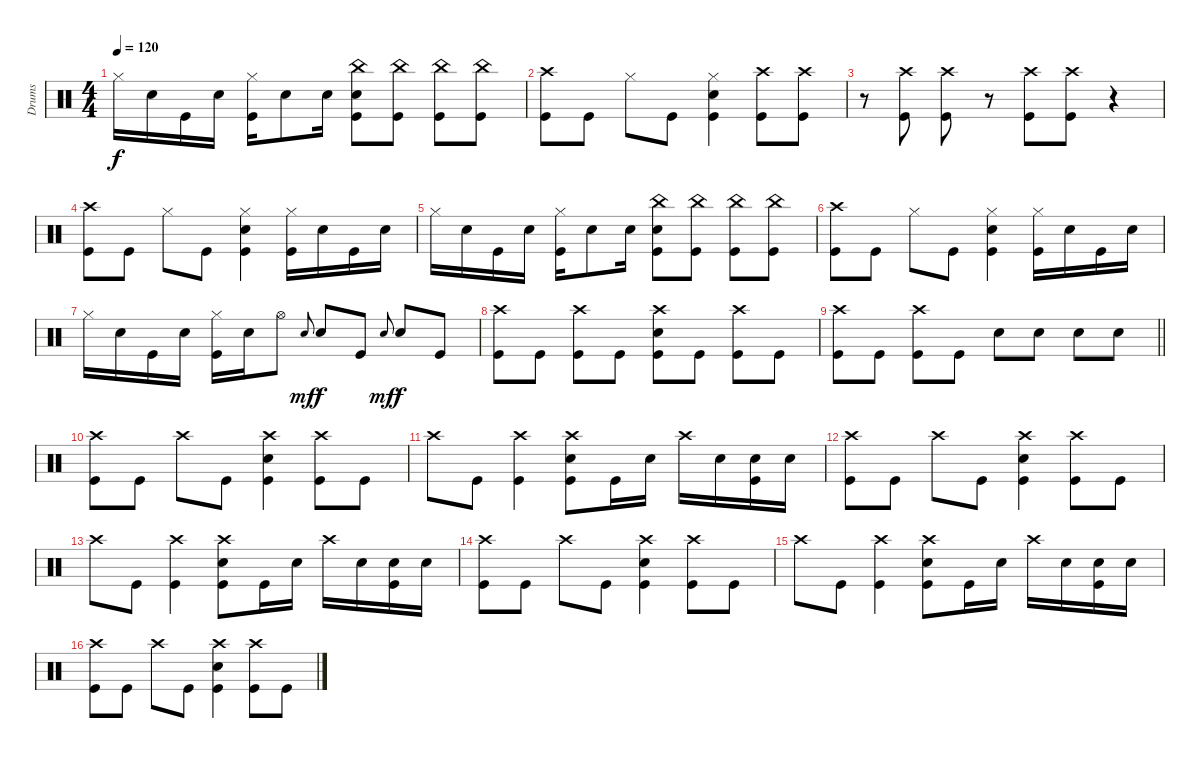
\track ("Drums" "Drums") {instrument percussion}
\staff {score}
\articulation defaults
\ts (4 4)
\tempo 120
\clef neutral
\ks c "Hi-Hat (closed)".16{dy f} "Snare (hit) 2".16 "Kick (hit)".16 "Snare (hit) 2".16
("Hi-Hat (closed)" "Kick (hit)").16 "Snare (hit) 2".8 "Snare (hit) 2".16 ("Kick (hit)" "Snare (hit) 2" "China (hit)").8 ("Kick (hit)" "China (hit)").8 ("Kick (hit)" "China (hit)").8 ("Kick (hit)" "China (hit)").8 |
("Crash high (hit)" "Kick (hit)").8 "Kick (hit)".8 "Hi-Hat (closed)".8 "Kick (hit)".8 ("Snare (hit) 2" "Hi-Hat (closed)" "Kick (hit)").4 ("Crash high (hit)" "Kick (hit)").8 ("Kick (hit)" "Crash high (hit)").8 |
r.8 ("Crash high (hit)" "Kick (hit)").8 ("Kick (hit)" "Crash high (hit)").8 r.8 ("Kick (hit)" "Crash high (hit)").8 ("Crash high (hit)" "Kick (hit)").8 r.4 |
("Crash high (hit)" "Kick (hit)").8 "Kick (hit)".8 "Hi-Hat (closed)".8 "Kick (hit)".8 ("Snare (hit) 2" "Hi-Hat (closed)" "Kick (hit)").4 ("Hi-Hat (closed)" "Kick (hit)").16 "Snare (hit) 2".16 "Kick (hit)".16 "Snare (hit) 2".16 |
"Hi-Hat (closed)".16 "Snare (hit) 2".16 "Kick (hit)".16 "Snare (hit) 2".16 ("Hi-Hat (closed)" "Kick (hit)").16 "Snare (hit) 2".8 "Snare (hit) 2".16 ("Kick (hit)" "Snare (hit) 2" "China (hit)").8 ("Kick (hit)" "China (hit)").8 ("Kick (hit)" "China (hit)").8 ("Kick (hit)" "China (hit)").8 |
("Kick (hit)" "Crash high (hit)").8 "Kick (hit)".8 "Hi-Hat (closed)".8 "Kick (hit)".8 ("Kick (hit)" "Snare (hit) 2" "Hi-Hat (closed)").4 ("Kick (hit)" "Hi-Hat (closed)").16 "Snare (hit) 2".16 "Kick (hit)".16 "Snare (hit) 2".16 |
"Hi-Hat (closed)".16 "Snare (hit) 2".16 "Kick (hit)".16 "Snare (hit) 2".16 ("Kick (hit)" "Hi-Hat (closed)").16 "Snare (hit) 2".16 "Hi-Hat (open)".8 "Snare (hit) 2".8{gr onbeat dy mf} "Snare (hit) 2".8{dy f volume 9} "Kick (hit)".8 "Snare (hit) 2".8{gr onbeat dy mf} "Snare (hit) 2".8{dy f} "Kick (hit)".8 |
("Kick (hit)" "Crash high (hit)").8 "Kick (hit)".8 ("Kick (hit)" "Crash high (hit)").8 "Kick (hit)".8 ("Kick (hit)" "Snare (hit) 2" "Crash high (hit)").8 "Kick (hit)".8 ("Kick (hit)" "Crash high (hit)").8 "Kick (hit)".8 |
\barLineRight lightlight
("Kick (hit)" "Crash high (hit)").8 "Kick (hit)".8 ("Kick (hit)" "Crash high (hit)").8 "Kick (hit)".8 "Snare (hit) 2".8 "Snare (hit) 2".8 "Snare (hit) 2".8 "Snare (hit) 2".8 |
("Crash high (hit)" "Kick (hit)").8 "Kick (hit)".8 "Crash high (hit)".8 "Kick (hit)".8 ("Snare (hit) 2" "Crash high (hit)" "Kick (hit)").4 ("Crash high (hit)" "Kick (hit)").8 "Kick (hit)".8 |
"Crash high (hit)".8 "Kick (hit)".8 ("Crash high (hit)" "Kick (hit)").4 ("Snare (hit) 2" "Crash high (hit)" "Kick (hit)").8 "Kick (hit)".16 "Snare (hit) 2".16 "Crash high (hit)".16 "Snare (hit) 2".16 ("Kick (hit)" "Snare (hit) 2").16 "Snare (hit) 2".16 |
("Kick (hit)" "Crash high (hit)").8 "Kick (hit)".8 "Crash high (hit)".8 "Kick (hit)".8 ("Kick (hit)" "Snare (hit) 2" "Crash high (hit)").4 ("Kick (hit)" "Crash high (hit)").8 "Kick (hit)".8 |
"Crash high (hit)".8 "Kick (hit)".8 ("Crash high (hit)" "Kick (hit)").4 ("Snare (hit) 2" "Crash high (hit)" "Kick (hit)").8 "Kick (hit)".16 "Snare (hit) 2".16 "Crash high (hit)".16 "Snare (hit) 2".16 ("Snare (hit) 2" "Kick (hit)").16 "Snare (hit) 2".16 |
("Kick (hit)" "Crash high (hit)").8 "Kick (hit)".8 "Crash high (hit)".8 "Kick (hit)".8 ("Kick (hit)" "Snare (hit) 2" "Crash high (hit)").4 ("Kick (hit)" "Crash high (hit)").8 "Kick (hit)".8 |
"Crash high (hit)".8 "Kick (hit)".8 ("Kick (hit)" "Crash high (hit)").4 ("Kick (hit)" "Snare (hit) 2" "Crash high (hit)").8 "Kick (hit)".16 "Snare (hit) 2".16 "Crash high (hit)".16 "Snare (hit) 2".16 ("Snare (hit) 2" "Kick (hit)").16 "Snare (hit) 2".16 |
("Kick (hit)" "Crash high (hit)").8 "Kick (hit)".8 "Crash high (hit)".8 "Kick (hit)".8 ("Kick (hit)" "Snare (hit) 2" "Crash high (hit)").4 ("Kick (hit)" "Crash high (hit)").8 "Kick (hit)".8
